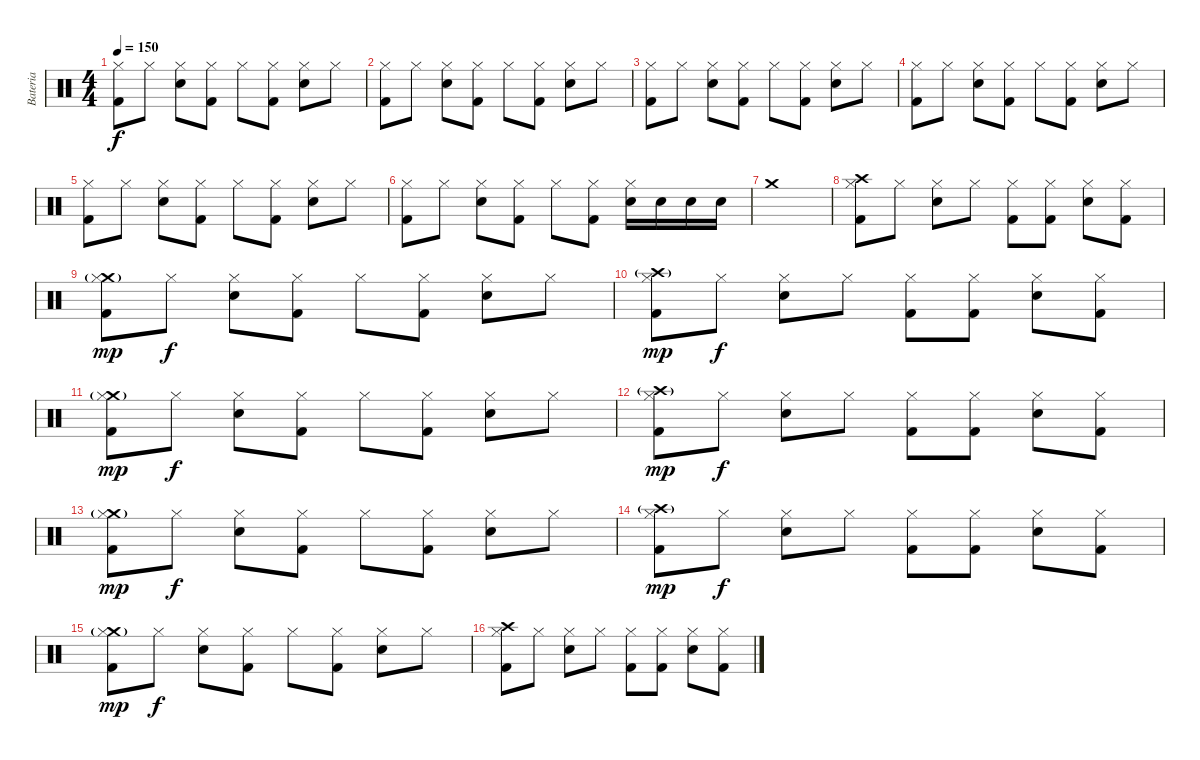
\track ("Bateria" "Bateria") {instrument percussion}
\staff {score}
\articulation defaults
\ts (4 4)
\tempo 150
\clef neutral
\ks c
("Kick (hit) 2" "Hi-Hat (closed)").8{dy f} "Hi-Hat (closed)".8 ("Electric Snare (hit)" "Hi-Hat (closed)").8 ("Kick (hit) 2" "Hi-Hat (closed)").8 "Hi-Hat (closed)".8 ("Kick (hit) 2" "Hi-Hat (closed)").8 ("Electric Snare (hit)" "Hi-Hat (closed)").8 "Hi-Hat (closed)".8 |
("Kick (hit) 2" "Hi-Hat (closed)").8 "Hi-Hat (closed)".8 ("Electric Snare (hit)" "Hi-Hat (closed)").8 ("Kick (hit) 2" "Hi-Hat (closed)").8 "Hi-Hat (closed)".8 ("Kick (hit) 2" "Hi-Hat (closed)").8 ("Electric Snare (hit)" "Hi-Hat (closed)").8 "Hi-Hat (closed)".8 |
("Kick (hit) 2" "Hi-Hat (closed)").8 "Hi-Hat (closed)".8 ("Electric Snare (hit)" "Hi-Hat (closed)").8 ("Kick (hit) 2" "Hi-Hat (closed)").8 "Hi-Hat (closed)".8 ("Kick (hit) 2" "Hi-Hat (closed)").8 ("Electric Snare (hit)" "Hi-Hat (closed)").8 "Hi-Hat (closed)".8 |
("Kick (hit) 2" "Hi-Hat (closed)").8 "Hi-Hat (closed)".8 ("Electric Snare (hit)" "Hi-Hat (closed)").8 ("Kick (hit) 2" "Hi-Hat (closed)").8 "Hi-Hat (closed)".8 ("Kick (hit) 2" "Hi-Hat (closed)").8 ("Electric Snare (hit)" "Hi-Hat (closed)").8 "Hi-Hat (closed)".8 |
("Kick (hit) 2" "Hi-Hat (closed)").8 "Hi-Hat (closed)".8 ("Electric Snare (hit)" "Hi-Hat (closed)").8 ("Kick (hit) 2" "Hi-Hat (closed)").8 "Hi-Hat (closed)".8 ("Kick (hit) 2" "Hi-Hat (closed)").8 ("Electric Snare (hit)" "Hi-Hat (closed)").8 "Hi-Hat (closed)".8 |
("Kick (hit) 2" "Hi-Hat (closed)").8 "Hi-Hat (closed)".8 ("Electric Snare (hit)" "Hi-Hat (closed)").8 ("Kick (hit) 2" "Hi-Hat (closed)").8 "Hi-Hat (closed)".8 ("Kick (hit) 2" "Hi-Hat (closed)").8 ("Electric Snare (hit)" "Hi-Hat (closed)").16 "Electric Snare (hit)".16 "Electric Snare (hit)".16 "Electric Snare (hit)".16 |
"Crash medium (hit)".1 |
("Kick (hit) 2" "Crash high (hit)" "Hi-Hat (closed)").8 "Hi-Hat (closed)".8 ("Electric Snare (hit)" "Hi-Hat (closed)").8 "Hi-Hat (closed)".8 ("Kick (hit) 2" "Hi-Hat (closed)").8 ("Kick (hit) 2" "Hi-Hat (closed)").8 ("Electric Snare (hit)" "Hi-Hat (closed)").8 ("Kick (hit) 2" "Hi-Hat (closed)").8 |
("Kick (hit) 2" "Crash medium (hit)"{g} "Hi-Hat (closed)").8{dy mp} "Hi-Hat (closed)".8{dy f} ("Electric Snare (hit)" "Hi-Hat (closed)").8 ("Kick (hit) 2" "Hi-Hat (closed)").8 "Hi-Hat (closed)".8 ("Kick (hit) 2" "Hi-Hat (closed)").8 ("Electric Snare (hit)" "Hi-Hat (closed)").8 "Hi-Hat (closed)".8 |
("Kick (hit) 2" "Crash high (hit)"{g} "Hi-Hat (closed)").8{dy mp} "Hi-Hat (closed)".8{dy f} ("Electric Snare (hit)" "Hi-Hat (closed)").8 "Hi-Hat (closed)".8 ("Kick (hit) 2" "Hi-Hat (closed)").8 ("Kick (hit) 2" "Hi-Hat (closed)").8 ("Electric Snare (hit)" "Hi-Hat (closed)").8 ("Kick (hit) 2" "Hi-Hat (closed)").8 |
("Kick (hit) 2" "Crash medium (hit)"{g} "Hi-Hat (closed)").8{dy mp} "Hi-Hat (closed)".8{dy f} ("Electric Snare (hit)" "Hi-Hat (closed)").8 ("Kick (hit) 2" "Hi-Hat (closed)").8 "Hi-Hat (closed)".8 ("Kick (hit) 2" "Hi-Hat (closed)").8 ("Electric Snare (hit)" "Hi-Hat (closed)").8 "Hi-Hat (closed)".8 |
("Kick (hit) 2" "Crash high (hit)"{g} "Hi-Hat (closed)").8{dy mp} "Hi-Hat (closed)".8{dy f} ("Electric Snare (hit)" "Hi-Hat (closed)").8 "Hi-Hat (closed)".8 ("Kick (hit) 2" "Hi-Hat (closed)").8 ("Kick (hit) 2" "Hi-Hat (closed)").8 ("Electric Snare (hit)" "Hi-Hat (closed)").8 ("Kick (hit) 2" "Hi-Hat (closed)").8 |
("Kick (hit) 2" "Crash medium (hit)"{g} "Hi-Hat (closed)").8{dy mp} "Hi-Hat (closed)".8{dy f} ("Electric Snare (hit)" "Hi-Hat (closed)").8 ("Kick (hit) 2" "Hi-Hat (closed)").8 "Hi-Hat (closed)".8 ("Kick (hit) 2" "Hi-Hat (closed)").8 ("Electric Snare (hit)" "Hi-Hat (closed)").8 "Hi-Hat (closed)".8 |
("Kick (hit) 2" "Crash high (hit)"{g} "Hi-Hat (closed)").8{dy mp} "Hi-Hat (closed)".8{dy f} ("Electric Snare (hit)" "Hi-Hat (closed)").8 "Hi-Hat (closed)".8 ("Kick (hit) 2" "Hi-Hat (closed)").8 ("Kick (hit) 2" "Hi-Hat (closed)").8 ("Electric Snare (hit)" "Hi-Hat (closed)").8 ("Kick (hit) 2" "Hi-Hat (closed)").8 |
("Kick (hit) 2" "Crash medium (hit)"{g} "Hi-Hat (closed)").8{dy mp} "Hi-Hat (closed)".8{dy f} ("Electric Snare (hit)" "Hi-Hat (closed)").8 ("Kick (hit) 2" "Hi-Hat (closed)").8 "Hi-Hat (closed)".8 ("Kick (hit) 2" "Hi-Hat (closed)").8 ("Electric Snare (hit)" "Hi-Hat (closed)").8 "Hi-Hat (closed)".8 |
("Kick (hit) 2" "Crash high (hit)" "Hi-Hat (closed)").8 "Hi-Hat (closed)".8 ("Electric Snare (hit)" "Hi-Hat (closed)").8 "Hi-Hat (closed)".8 ("Kick (hit) 2" "Hi-Hat (closed)").8 ("Kick (hit) 2" "Hi-Hat (closed)").8 ("Electric Snare (hit)" "Hi-Hat (closed)").8 ("Kick (hit) 2" "Hi-Hat (closed)").8
